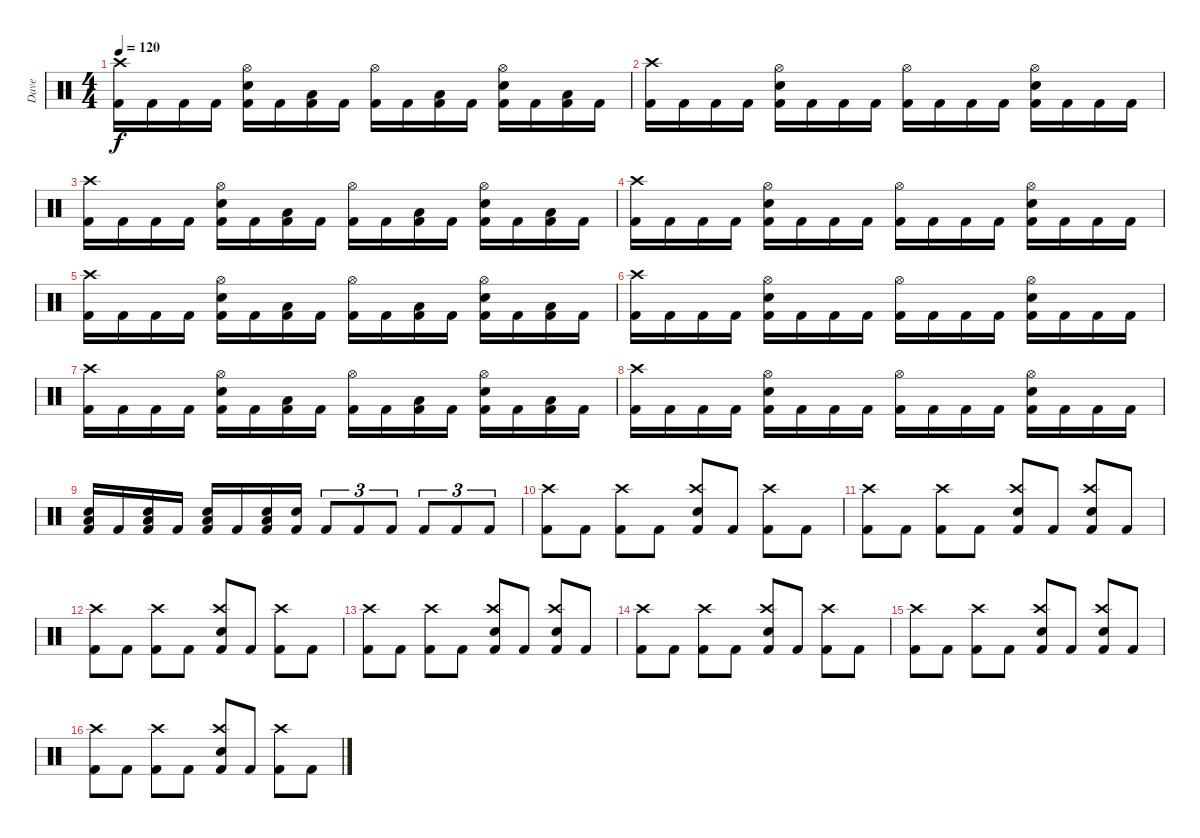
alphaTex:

\track ("Dave" "Dave") {instrument percussion}
\staff {score}
\articulation defaults
\ts (4 4)
\tempo 120
\clef neutral
\ks c
("Kick (hit) 2" "Crash high (hit)").16{dy f} "Kick (hit) 2".16 "Kick (hit) 2".16 "Kick (hit) 2".16 ("Kick (hit) 2" "Snare (hit) 2" "Hi-Hat (open)").16 "Kick (hit) 2".16 ("Kick (hit) 2" "Low Tom (hit)").16 "Kick (hit) 2".16 ("Kick (hit) 2" "Hi-Hat (open)").16 "Kick (hit) 2".16 ("Kick (hit) 2" "Low Tom (hit)").16 "Kick (hit) 2".16 ("Kick (hit) 2" "Snare (hit) 2" "Hi-Hat (open)").16 "Kick (hit) 2".16 ("Kick (hit) 2" "Low Floor Tom (hit)").16 "Kick (hit) 2".16 |
("Kick (hit) 2" "Crash high (hit)").16 "Kick (hit) 2".16 "Kick (hit) 2".16 "Kick (hit) 2".16 ("Kick (hit) 2" "Snare (hit) 2" "Hi-Hat (open)").16 "Kick (hit) 2".16 "Kick (hit) 2".16 "Kick (hit) 2".16 ("Kick (hit) 2" "Hi-Hat (open)").16 "Kick (hit) 2".16 "Kick (hit) 2".16 "Kick (hit) 2".16 ("Kick (hit) 2" "Snare (hit) 2" "Hi-Hat (open)").16 "Kick (hit) 2".16 "Kick (hit) 2".16 "Kick (hit) 2".16 |
("Kick (hit) 2" "Crash high (hit)").16 "Kick (hit) 2".16 "Kick (hit) 2".16 "Kick (hit) 2".16 ("Kick (hit) 2" "Snare (hit) 2" "Hi-Hat (open)").16 "Kick (hit) 2".16 ("Kick (hit) 2" "Low Tom (hit)").16 "Kick (hit) 2".16 ("Kick (hit) 2" "Hi-Hat (open)").16 "Kick (hit) 2".16 ("Kick (hit) 2" "Low Tom (hit)").16 "Kick (hit) 2".16 ("Kick (hit) 2" "Snare (hit) 2" "Hi-Hat (open)").16 "Kick (hit) 2".16 ("Kick (hit) 2" "Low Floor Tom (hit)").16 "Kick (hit) 2".16 |
("Kick (hit) 2" "Crash high (hit)").16 "Kick (hit) 2".16 "Kick (hit) 2".16 "Kick (hit) 2".16 ("Kick (hit) 2" "Snare (hit) 2" "Hi-Hat (open)").16 "Kick (hit) 2".16 "Kick (hit) 2".16 "Kick (hit) 2".16 ("Kick (hit) 2" "Hi-Hat (open)").16 "Kick (hit) 2".16 "Kick (hit) 2".16 "Kick (hit) 2".16 ("Kick (hit) 2" "Snare (hit) 2" "Hi-Hat (open)").16 "Kick (hit) 2".16 "Kick (hit) 2".16 "Kick (hit) 2".16 |
("Kick (hit) 2" "Crash high (hit)").16 "Kick (hit) 2".16 "Kick (hit) 2".16 "Kick (hit) 2".16 ("Kick (hit) 2" "Snare (hit) 2" "Hi-Hat (open)").16 "Kick (hit) 2".16 ("Kick (hit) 2" "Low Tom (hit)").16 "Kick (hit) 2".16 ("Kick (hit) 2" "Hi-Hat (open)").16 "Kick (hit) 2".16 ("Kick (hit) 2" "Low Tom (hit)").16 "Kick (hit) 2".16 ("Kick (hit) 2" "Snare (hit) 2" "Hi-Hat (open)").16 "Kick (hit) 2".16 ("Kick (hit) 2" "Low Floor Tom (hit)").16 "Kick (hit) 2".16 |
("Kick (hit) 2" "Crash high (hit)").16 "Kick (hit) 2".16 "Kick (hit) 2".16 "Kick (hit) 2".16 ("Kick (hit) 2" "Snare (hit) 2" "Hi-Hat (open)").16 "Kick (hit) 2".16 "Kick (hit) 2".16 "Kick (hit) 2".16 ("Kick (hit) 2" "Hi-Hat (open)").16 "Kick (hit) 2".16 "Kick (hit) 2".16 "Kick (hit) 2".16 ("Kick (hit) 2" "Snare (hit) 2" "Hi-Hat (open)").16 "Kick (hit) 2".16 "Kick (hit) 2".16 "Kick (hit) 2".16 |
("Kick (hit) 2" "Crash high (hit)").16 "Kick (hit) 2".16 "Kick (hit) 2".16 "Kick (hit) 2".16 ("Kick (hit) 2" "Snare (hit) 2" "Hi-Hat (open)").16 "Kick (hit) 2".16 ("Kick (hit) 2" "Low Tom (hit)").16 "Kick (hit) 2".16 ("Kick (hit) 2" "Hi-Hat (open)").16 "Kick (hit) 2".16 ("Kick (hit) 2" "Low Tom (hit)").16 "Kick (hit) 2".16 ("Kick (hit) 2" "Snare (hit) 2" "Hi-Hat (open)").16 "Kick (hit) 2".16 ("Kick (hit) 2" "Low Floor Tom (hit)").16 "Kick (hit) 2".16 |
("Kick (hit) 2" "Crash high (hit)").16 "Kick (hit) 2".16 "Kick (hit) 2".16 "Kick (hit) 2".16 ("Kick (hit) 2" "Snare (hit) 2" "Hi-Hat (open)").16 "Kick (hit) 2".16 "Kick (hit) 2".16 "Kick (hit) 2".16 ("Kick (hit) 2" "Hi-Hat (open)").16 "Kick (hit) 2".16 "Kick (hit) 2".16 "Kick (hit) 2".16 ("Kick (hit) 2" "Snare (hit) 2" "Hi-Hat (open)").16 "Kick (hit) 2".16 "Kick (hit) 2".16 "Kick (hit) 2".16 |
("Kick (hit) 2" "Snare (hit) 2" "Low Floor Tom (hit)").16 "Kick (hit) 2".16 ("Kick (hit) 2" "Snare (hit) 2" "Low Floor Tom (hit)").16 "Kick (hit) 2".16 ("Kick (hit) 2" "Snare (hit) 2" "Low Floor Tom (hit)").16 "Kick (hit) 2".16 ("Kick (hit) 2" "Snare (hit) 2" "Low Floor Tom (hit)").16 ("Kick (hit) 2" "Snare (hit) 2").16 "Kick (hit) 2".8{tu (3 2)} "Kick (hit) 2".8{tu (3 2)} "Kick (hit) 2".8{tu (3 2)} "Kick (hit) 2".8{tu (3 2)} "Kick (hit) 2".8{tu (3 2)} "Kick (hit) 2".8{tu (3 2)} |
("Kick (hit) 2" "Crash high (hit)").8 "Kick (hit) 2".8 ("Kick (hit) 2" "Crash high (hit)").8 "Kick (hit) 2".8 ("Kick (hit) 2" "Snare (hit) 2" "Crash high (hit)").8 "Kick (hit) 2".8 ("Kick (hit) 2" "Crash high (hit)").8 "Kick (hit) 2".8 |
("Kick (hit) 2" "Crash high (hit)").8 "Kick (hit) 2".8 ("Kick (hit) 2" "Crash high (hit)").8 "Kick (hit) 2".8 ("Kick (hit) 2" "Snare (hit) 2" "Crash high (hit)").8 "Kick (hit) 2".8 ("Kick (hit) 2" "Snare (hit) 2" "Crash high (hit)").8 "Kick (hit) 2".8 |
("Kick (hit) 2" "Crash high (hit)").8 "Kick (hit) 2".8 ("Kick (hit) 2" "Crash high (hit)").8 "Kick (hit) 2".8 ("Kick (hit) 2" "Snare (hit) 2" "Crash high (hit)").8 "Kick (hit) 2".8 ("Kick (hit) 2" "Crash high (hit)").8 "Kick (hit) 2".8 |
("Kick (hit) 2" "Crash high (hit)").8 "Kick (hit) 2".8 ("Kick (hit) 2" "Crash high (hit)").8 "Kick (hit) 2".8 ("Kick (hit) 2" "Snare (hit) 2" "Crash high (hit)").8 "Kick (hit) 2".8 ("Kick (hit) 2" "Snare (hit) 2" "Crash high (hit)").8 "Kick (hit) 2".8 |
("Kick (hit) 2" "Crash high (hit)").8 "Kick (hit) 2".8 ("Kick (hit) 2" "Crash high (hit)").8 "Kick (hit) 2".8 ("Kick (hit) 2" "Snare (hit) 2" "Crash high (hit)").8 "Kick (hit) 2".8 ("Kick (hit) 2" "Crash high (hit)").8 "Kick (hit) 2".8 |
("Kick (hit) 2" "Crash high (hit)").8 "Kick (hit) 2".8 ("Kick (hit) 2" "Crash high (hit)").8 "Kick (hit) 2".8 ("Kick (hit) 2" "Snare (hit) 2" "Crash high (hit)").8 "Kick (hit) 2".8 ("Kick (hit) 2" "Snare (hit) 2" "Crash high (hit)").8 "Kick (hit) 2".8 |
("Kick (hit) 2" "Crash high (hit)").8 "Kick (hit) 2".8 ("Kick (hit) 2" "Crash high (hit)").8 "Kick (hit) 2".8 ("Kick (hit) 2" "Snare (hit) 2" "Crash high (hit)").8 "Kick (hit) 2".8 ("Kick (hit) 2" "Crash high (hit)").8 "Kick (hit) 2".8
